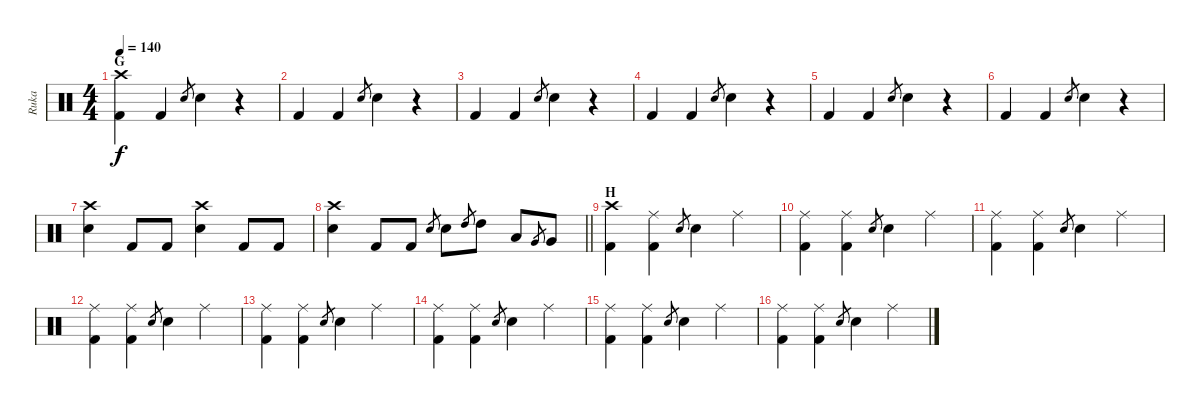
\track ("Ruka" "Ruka") {instrument percussion}
\staff {score}
\articulation defaults
\ts (4 4)
\section ("" "G")
\tempo 140
\clef neutral
\ks c
("Crash high (hit)" "Kick (hit) 2").4{dy f} "Kick (hit) 2".4 "Snare (hit) 2".8{gr} "Snare (hit) 2".4 r.4 |
"Kick (hit) 2".4 "Kick (hit) 2".4 "Snare (hit) 2".8{gr} "Snare (hit) 2".4 r.4 |
"Kick (hit) 2".4 "Kick (hit) 2".4 "Snare (hit) 2".8{gr} "Snare (hit) 2".4 r.4 |
"Kick (hit) 2".4 "Kick (hit) 2".4 "Snare (hit) 2".8{gr} "Snare (hit) 2".4 r.4 |
"Kick (hit) 2".4 "Kick (hit) 2".4 "Snare (hit) 2".8{gr} "Snare (hit) 2".4 r.4 |
"Kick (hit) 2".4 "Kick (hit) 2".4 "Snare (hit) 2".8{gr} "Snare (hit) 2".4 r.4 |
("Crash high (hit)" "Snare (hit) 2").4 "Kick (hit) 2".8 "Kick (hit) 2".8 ("Crash high (hit)" "Snare (hit) 2").4 "Kick (hit) 2".8 "Kick (hit) 2".8 |
\barLineRight lightlight
("Crash high (hit)" "Snare (hit) 2").4 "Kick (hit) 2".8 "Kick (hit) 2".8 "Snare (hit) 2".8{gr} "Snare (hit) 2".8 "High Tom (hit)".8{gr} "High Tom (hit)".8 "Low Tom (hit)".8 "Very Low Tom (hit)".8{gr} "Very Low Tom (hit)".8 |
\section ("" "H")
("Crash high (hit)" "Kick (hit) 2").4 ("Ride (middle)" "Kick (hit) 2").4 "Snare (hit) 2".8{gr} "Snare (hit) 2".4 "Ride (middle)".4 |
("Ride (middle)" "Kick (hit) 2").4 ("Ride (middle)" "Kick (hit) 2").4 "Snare (hit) 2".8{gr} "Snare (hit) 2".4 "Ride (middle)".4 |
("Ride (middle)" "Kick (hit) 2").4 ("Ride (middle)" "Kick (hit) 2").4 "Snare (hit) 2".8{gr} "Snare (hit) 2".4 "Ride (middle)".4 |
("Ride (middle)" "Kick (hit) 2").4 ("Ride (middle)" "Kick (hit) 2").4 "Snare (hit) 2".8{gr} "Snare (hit) 2".4 "Ride (middle)".4 |
("Ride (middle)" "Kick (hit) 2").4 ("Ride (middle)" "Kick (hit) 2").4 "Snare (hit) 2".8{gr} "Snare (hit) 2".4 "Ride (middle)".4 |
("Ride (middle)" "Kick (hit) 2").4 ("Ride (middle)" "Kick (hit) 2").4 "Snare (hit) 2".8{gr} "Snare (hit) 2".4 "Ride (middle)".4 |
("Ride (middle)" "Kick (hit) 2").4 ("Ride (middle)" "Kick (hit) 2").4 "Snare (hit) 2".8{gr} "Snare (hit) 2".4 "Ride (middle)".4 |
("Ride (middle)" "Kick (hit) 2").4 ("Ride (middle)" "Kick (hit) 2").4 "Snare (hit) 2".8{gr} "Snare (hit) 2".4 "Ride (middle)".4
